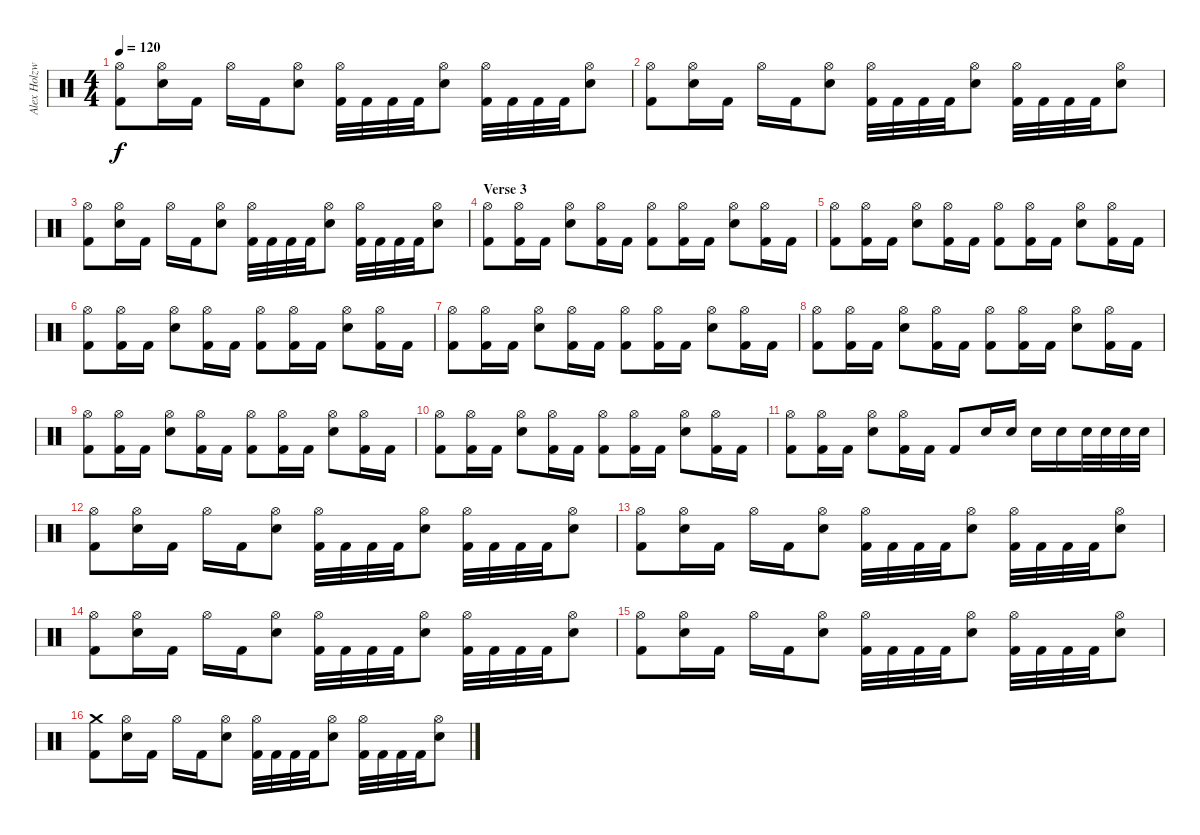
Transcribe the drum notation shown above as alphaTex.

\track ("Alex Holzwarth - Drums" "Alex Holzw") {instrument percussion}
\staff {score}
\articulation defaults
\ts (4 4)
\tempo 120
\clef neutral
\ks c
("Hi-Hat (open)" "Kick (hit) 2").8{dy f} ("Hi-Hat (open)" "Electric Snare (hit)").16 "Kick (hit) 2".16 "Hi-Hat (open)".16 "Kick (hit) 2".16 ("Hi-Hat (open)" "Electric Snare (hit)").8 ("Hi-Hat (open)" "Kick (hit) 2").32 "Kick (hit) 2".32 "Kick (hit) 2".32 "Kick (hit) 2".32 ("Hi-Hat (open)" "Electric Snare (hit)").8 ("Hi-Hat (open)" "Kick (hit) 2").32 "Kick (hit) 2".32 "Kick (hit) 2".32 "Kick (hit) 2".32 ("Hi-Hat (open)" "Electric Snare (hit)").8 |
("Hi-Hat (open)" "Kick (hit) 2").8 ("Hi-Hat (open)" "Electric Snare (hit)").16 "Kick (hit) 2".16 "Hi-Hat (open)".16 "Kick (hit) 2".16 ("Hi-Hat (open)" "Electric Snare (hit)").8 ("Hi-Hat (open)" "Kick (hit) 2").32 "Kick (hit) 2".32 "Kick (hit) 2".32 "Kick (hit) 2".32 ("Hi-Hat (open)" "Electric Snare (hit)").8 ("Hi-Hat (open)" "Kick (hit) 2").32 "Kick (hit) 2".32 "Kick (hit) 2".32 "Kick (hit) 2".32 ("Hi-Hat (open)" "Electric Snare (hit)").8 |
("Hi-Hat (open)" "Kick (hit) 2").8 ("Hi-Hat (open)" "Electric Snare (hit)").16 "Kick (hit) 2".16 "Hi-Hat (open)".16 "Kick (hit) 2".16 ("Hi-Hat (open)" "Electric Snare (hit)").8 ("Hi-Hat (open)" "Kick (hit) 2").32 "Kick (hit) 2".32 "Kick (hit) 2".32 "Kick (hit) 2".32 ("Hi-Hat (open)" "Electric Snare (hit)").8 ("Hi-Hat (open)" "Kick (hit) 2").32 "Kick (hit) 2".32 "Kick (hit) 2".32 "Kick (hit) 2".32 ("Hi-Hat (open)" "Electric Snare (hit)").8 |
\section ("" "Verse 3")
("Hi-Hat (open)" "Kick (hit) 2").8 ("Hi-Hat (open)" "Kick (hit) 2").16 "Kick (hit) 2".16 ("Hi-Hat (open)" "Electric Snare (hit)").8 ("Hi-Hat (open)" "Kick (hit) 2").16 "Kick (hit) 2".16 ("Hi-Hat (open)" "Kick (hit) 2").8 ("Hi-Hat (open)" "Kick (hit) 2").16 "Kick (hit) 2".16 ("Hi-Hat (open)" "Electric Snare (hit)").8 ("Hi-Hat (open)" "Kick (hit) 2").16 "Kick (hit) 2".16 |
("Hi-Hat (open)" "Kick (hit) 2").8 ("Hi-Hat (open)" "Kick (hit) 2").16 "Kick (hit) 2".16 ("Hi-Hat (open)" "Electric Snare (hit)").8 ("Hi-Hat (open)" "Kick (hit) 2").16 "Kick (hit) 2".16 ("Hi-Hat (open)" "Kick (hit) 2").8 ("Hi-Hat (open)" "Kick (hit) 2").16 "Kick (hit) 2".16 ("Hi-Hat (open)" "Electric Snare (hit)").8 ("Hi-Hat (open)" "Kick (hit) 2").16 "Kick (hit) 2".16 |
("Hi-Hat (open)" "Kick (hit) 2").8 ("Hi-Hat (open)" "Kick (hit) 2").16 "Kick (hit) 2".16 ("Hi-Hat (open)" "Electric Snare (hit)").8 ("Hi-Hat (open)" "Kick (hit) 2").16 "Kick (hit) 2".16 ("Hi-Hat (open)" "Kick (hit) 2").8 ("Hi-Hat (open)" "Kick (hit) 2").16 "Kick (hit) 2".16 ("Hi-Hat (open)" "Electric Snare (hit)").8 ("Hi-Hat (open)" "Kick (hit) 2").16 "Kick (hit) 2".16 |
("Hi-Hat (open)" "Kick (hit) 2").8 ("Hi-Hat (open)" "Kick (hit) 2").16 "Kick (hit) 2".16 ("Hi-Hat (open)" "Electric Snare (hit)").8 ("Hi-Hat (open)" "Kick (hit) 2").16 "Kick (hit) 2".16 ("Hi-Hat (open)" "Kick (hit) 2").8 ("Hi-Hat (open)" "Kick (hit) 2").16 "Kick (hit) 2".16 ("Hi-Hat (open)" "Electric Snare (hit)").8 ("Hi-Hat (open)" "Kick (hit) 2").16 "Kick (hit) 2".16 |
("Hi-Hat (open)" "Kick (hit) 2").8 ("Hi-Hat (open)" "Kick (hit) 2").16 "Kick (hit) 2".16 ("Hi-Hat (open)" "Electric Snare (hit)").8 ("Hi-Hat (open)" "Kick (hit) 2").16 "Kick (hit) 2".16 ("Hi-Hat (open)" "Kick (hit) 2").8 ("Hi-Hat (open)" "Kick (hit) 2").16 "Kick (hit) 2".16 ("Hi-Hat (open)" "Electric Snare (hit)").8 ("Hi-Hat (open)" "Kick (hit) 2").16 "Kick (hit) 2".16 |
("Hi-Hat (open)" "Kick (hit) 2").8 ("Hi-Hat (open)" "Kick (hit) 2").16 "Kick (hit) 2".16 ("Hi-Hat (open)" "Electric Snare (hit)").8 ("Hi-Hat (open)" "Kick (hit) 2").16 "Kick (hit) 2".16 ("Hi-Hat (open)" "Kick (hit) 2").8 ("Hi-Hat (open)" "Kick (hit) 2").16 "Kick (hit) 2".16 ("Hi-Hat (open)" "Electric Snare (hit)").8 ("Hi-Hat (open)" "Kick (hit) 2").16 "Kick (hit) 2".16 |
("Hi-Hat (open)" "Kick (hit) 2").8 ("Hi-Hat (open)" "Kick (hit) 2").16 "Kick (hit) 2".16 ("Hi-Hat (open)" "Electric Snare (hit)").8 ("Hi-Hat (open)" "Kick (hit) 2").16 "Kick (hit) 2".16 ("Hi-Hat (open)" "Kick (hit) 2").8 ("Hi-Hat (open)" "Kick (hit) 2").16 "Kick (hit) 2".16 ("Hi-Hat (open)" "Electric Snare (hit)").8 ("Hi-Hat (open)" "Kick (hit) 2").16 "Kick (hit) 2".16 |
("Hi-Hat (open)" "Kick (hit) 2").8 ("Hi-Hat (open)" "Kick (hit) 2").16 "Kick (hit) 2".16 ("Hi-Hat (open)" "Electric Snare (hit)").8 ("Hi-Hat (open)" "Kick (hit) 2").16 "Kick (hit) 2".16 "Kick (hit) 2".8 "Electric Snare (hit)".16 "Electric Snare (hit)".16 "Electric Snare (hit)".16 "Electric Snare (hit)".16 "Electric Snare (hit)".32 "Electric Snare (hit)".32 "Electric Snare (hit)".32 "Electric Snare (hit)".32 |
("Hi-Hat (open)" "Kick (hit) 2").8 ("Hi-Hat (open)" "Electric Snare (hit)").16 "Kick (hit) 2".16 "Hi-Hat (open)".16 "Kick (hit) 2".16 ("Hi-Hat (open)" "Electric Snare (hit)").8 ("Hi-Hat (open)" "Kick (hit) 2").32 "Kick (hit) 2".32 "Kick (hit) 2".32 "Kick (hit) 2".32 ("Hi-Hat (open)" "Electric Snare (hit)").8 ("Hi-Hat (open)" "Kick (hit) 2").32 "Kick (hit) 2".32 "Kick (hit) 2".32 "Kick (hit) 2".32 ("Hi-Hat (open)" "Electric Snare (hit)").8 |
("Hi-Hat (open)" "Kick (hit) 2").8 ("Hi-Hat (open)" "Electric Snare (hit)").16 "Kick (hit) 2".16 "Hi-Hat (open)".16 "Kick (hit) 2".16 ("Hi-Hat (open)" "Electric Snare (hit)").8 ("Hi-Hat (open)" "Kick (hit) 2").32 "Kick (hit) 2".32 "Kick (hit) 2".32 "Kick (hit) 2".32 ("Hi-Hat (open)" "Electric Snare (hit)").8 ("Hi-Hat (open)" "Kick (hit) 2").32 "Kick (hit) 2".32 "Kick (hit) 2".32 "Kick (hit) 2".32 ("Hi-Hat (open)" "Electric Snare (hit)").8 |
("Hi-Hat (open)" "Kick (hit) 2").8 ("Hi-Hat (open)" "Electric Snare (hit)").16 "Kick (hit) 2".16 "Hi-Hat (open)".16 "Kick (hit) 2".16 ("Hi-Hat (open)" "Electric Snare (hit)").8 ("Hi-Hat (open)" "Kick (hit) 2").32 "Kick (hit) 2".32 "Kick (hit) 2".32 "Kick (hit) 2".32 ("Hi-Hat (open)" "Electric Snare (hit)").8 ("Hi-Hat (open)" "Kick (hit) 2").32 "Kick (hit) 2".32 "Kick (hit) 2".32 "Kick (hit) 2".32 ("Hi-Hat (open)" "Electric Snare (hit)").8 |
("Hi-Hat (open)" "Kick (hit) 2").8 ("Hi-Hat (open)" "Electric Snare (hit)").16 "Kick (hit) 2".16 "Hi-Hat (open)".16 "Kick (hit) 2".16 ("Hi-Hat (open)" "Electric Snare (hit)").8 ("Hi-Hat (open)" "Kick (hit) 2").32 "Kick (hit) 2".32 "Kick (hit) 2".32 "Kick (hit) 2".32 ("Hi-Hat (open)" "Electric Snare (hit)").8 ("Hi-Hat (open)" "Kick (hit) 2").32 "Kick (hit) 2".32 "Kick (hit) 2".32 "Kick (hit) 2".32 ("Hi-Hat (open)" "Electric Snare (hit)").8 |
("Crash medium (hit)" "Kick (hit) 2").8 ("Hi-Hat (open)" "Electric Snare (hit)").16 "Kick (hit) 2".16 "Hi-Hat (open)".16 "Kick (hit) 2".16 ("Hi-Hat (open)" "Electric Snare (hit)").8 ("Hi-Hat (open)" "Kick (hit) 2").32 "Kick (hit) 2".32 "Kick (hit) 2".32 "Kick (hit) 2".32 ("Hi-Hat (open)" "Electric Snare (hit)").8 ("Hi-Hat (open)" "Kick (hit) 2").32 "Kick (hit) 2".32 "Kick (hit) 2".32 "Kick (hit) 2".32 ("Hi-Hat (open)" "Electric Snare (hit)").8
